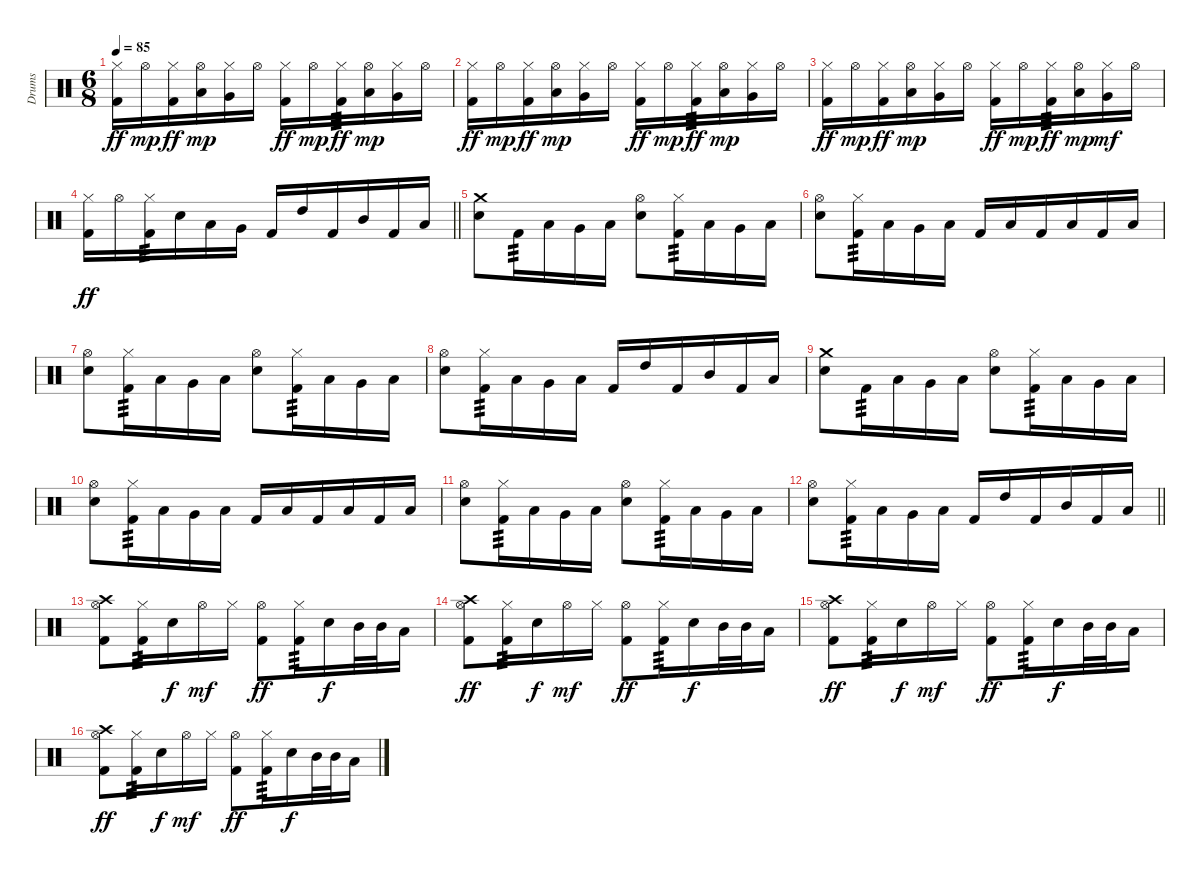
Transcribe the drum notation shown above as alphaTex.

\track ("Drums" "Drums") {instrument percussion}
\staff {score}
\articulation defaults
\ts (6 8)
\tempo 85
\clef neutral
\ks c
("Hi-Hat (closed)" "Kick (hit) 2").16{dy ff} "Hi-Hat (open)".16{dy mp} ("Hi-Hat (closed)" "Kick (hit) 2").16{dy ff} ("Hi-Hat (open)" "Low Tom (hit)").16{dy mp} ("Hi-Hat (closed)" "Very Low Tom (hit)").16 "Hi-Hat (open)".16 ("Hi-Hat (closed)" "Kick (hit) 2").16{dy ff} "Hi-Hat (open)".16{dy mp} ("Hi-Hat (closed)" "Kick (hit) 2").16{tp 3 dy ff} ("Hi-Hat (open)" "Low Tom (hit)").16{dy mp} ("Hi-Hat (closed)" "Very Low Tom (hit)").16 "Hi-Hat (open)".16 |
("Hi-Hat (closed)" "Kick (hit) 2").16{dy ff} "Hi-Hat (open)".16{dy mp} ("Hi-Hat (closed)" "Kick (hit) 2").16{dy ff} ("Hi-Hat (open)" "Low Tom (hit)").16{dy mp} ("Hi-Hat (closed)" "Very Low Tom (hit)").16 "Hi-Hat (open)".16 ("Hi-Hat (closed)" "Kick (hit) 2").16{dy ff} "Hi-Hat (open)".16{dy mp} ("Hi-Hat (closed)" "Kick (hit) 2").16{tp 3 dy ff} ("Hi-Hat (open)" "Low Tom (hit)").16{dy mp} ("Hi-Hat (closed)" "Very Low Tom (hit)").16 "Hi-Hat (open)".16 |
("Hi-Hat (closed)" "Kick (hit) 2").16{dy ff} "Hi-Hat (open)".16{dy mp} ("Hi-Hat (closed)" "Kick (hit) 2").16{dy ff} ("Hi-Hat (open)" "Low Tom (hit)").16{dy mp} ("Hi-Hat (closed)" "Very Low Tom (hit)").16 "Hi-Hat (open)".16 ("Hi-Hat (closed)" "Kick (hit) 2").16{dy ff} "Hi-Hat (open)".16{dy mp} ("Hi-Hat (closed)" "Kick (hit) 2").16{tp 3 dy ff} ("Hi-Hat (open)" "Low Tom (hit)").16{dy mp} ("Hi-Hat (closed)" "Very Low Tom (hit)").16{dy mf} "Hi-Hat (open)".16 |
\barLineRight lightlight
("Hi-Hat (closed)" "Kick (hit) 2").16{dy ff} "Hi-Hat (open)".16 ("Hi-Hat (closed)" "Kick (hit) 2").16{tp 3} "Snare (hit) 2".16 "Low Tom (hit)".16 "Very Low Tom (hit)".16 "Kick (hit) 2".16 "High Tom (hit)".16 "Kick (hit) 2".16 "Mid Tom (hit)".16 "Kick (hit) 2".16 "Low Tom (hit)".16 |
\section ("" "")
("Crash medium (hit)" "Snare (hit) 2").8 "Kick (hit) 2".16{tp 3} "Low Tom (hit)".16 "Very Low Tom (hit)".16 "Low Floor Tom (hit)".16 ("Hi-Hat (open)" "Snare (hit) 2").8 ("Hi-Hat (closed)" "Kick (hit) 2").16{tp 3} "Low Tom (hit)".16 "Very Low Tom (hit)".16 "Low Floor Tom (hit)".16 |
("Hi-Hat (open)" "Snare (hit) 2").8 ("Hi-Hat (closed)" "Kick (hit) 2").16{tp 3} "Low Tom (hit)".16 "Very Low Tom (hit)".16 "Low Floor Tom (hit)".16 "Kick (hit) 2".16 "Low Tom (hit)".16 "Kick (hit) 2".16 "Low Tom (hit)".16 "Kick (hit) 2".16 "Low Tom (hit)".16 |
("Hi-Hat (open)" "Snare (hit) 2").8 ("Hi-Hat (closed)" "Kick (hit) 2").16{tp 3} "Low Tom (hit)".16 "Very Low Tom (hit)".16 "Low Floor Tom (hit)".16 ("Hi-Hat (open)" "Snare (hit) 2").8 ("Hi-Hat (closed)" "Kick (hit) 2").16{tp 3} "Low Tom (hit)".16 "Very Low Tom (hit)".16 "Low Floor Tom (hit)".16 |
("Hi-Hat (open)" "Snare (hit) 2").8 ("Hi-Hat (closed)" "Kick (hit) 2").16{tp 3} "Low Tom (hit)".16 "Very Low Tom (hit)".16 "Low Floor Tom (hit)".16 "Kick (hit) 2".16 "High Tom (hit)".16 "Kick (hit) 2".16 "Mid Tom (hit)".16 "Kick (hit) 2".16 "Low Tom (hit)".16 |
("Crash medium (hit)" "Snare (hit) 2").8 "Kick (hit) 2".16{tp 3} "Low Tom (hit)".16 "Very Low Tom (hit)".16 "Low Floor Tom (hit)".16 ("Hi-Hat (open)" "Snare (hit) 2").8 ("Hi-Hat (closed)" "Kick (hit) 2").16{tp 3} "Low Tom (hit)".16 "Very Low Tom (hit)".16 "Low Floor Tom (hit)".16 |
("Hi-Hat (open)" "Snare (hit) 2").8 ("Hi-Hat (closed)" "Kick (hit) 2").16{tp 3} "Low Tom (hit)".16 "Very Low Tom (hit)".16 "Low Floor Tom (hit)".16 "Kick (hit) 2".16 "Low Tom (hit)".16 "Kick (hit) 2".16 "Low Tom (hit)".16 "Kick (hit) 2".16 "Low Tom (hit)".16 |
("Hi-Hat (open)" "Snare (hit) 2").8 ("Hi-Hat (closed)" "Kick (hit) 2").16{tp 3} "Low Tom (hit)".16 "Very Low Tom (hit)".16 "Low Floor Tom (hit)".16 ("Hi-Hat (open)" "Snare (hit) 2").8 ("Hi-Hat (closed)" "Kick (hit) 2").16{tp 3} "Low Tom (hit)".16 "Very Low Tom (hit)".16 "Low Floor Tom (hit)".16 |
\barLineRight lightlight
("Hi-Hat (open)" "Snare (hit) 2").8 ("Hi-Hat (closed)" "Kick (hit) 2").16{tp 3} "Low Tom (hit)".16 "Very Low Tom (hit)".16 "Low Floor Tom (hit)".16 "Kick (hit) 2".16 "High Tom (hit)".16 "Kick (hit) 2".16 "Mid Tom (hit)".16 "Kick (hit) 2".16 "Low Tom (hit)".16 |
\section ("" "")
("Crash high (hit)" "Hi-Hat (open)" "Kick (hit) 2").8 ("Hi-Hat (closed)" "Kick (hit) 2").16{tp 3} "Snare (hit) 2".16{dy f} "Hi-Hat (open)".16{dy mf} "Hi-Hat (closed)".16 ("Hi-Hat (open)" "Kick (hit) 2").8{dy ff} ("Hi-Hat (closed)" "Kick (hit) 2").16{tp 3} "Snare (hit) 2".16{dy f} "Mid Tom (hit)".32 "Mid Tom (hit)".32 "Low Tom (hit)".16 |
("Crash high (hit)" "Hi-Hat (open)" "Kick (hit) 2").8{dy ff} ("Hi-Hat (closed)" "Kick (hit) 2").16{tp 3} "Snare (hit) 2".16{dy f} "Hi-Hat (open)".16{dy mf} "Hi-Hat (closed)".16 ("Hi-Hat (open)" "Kick (hit) 2").8{dy ff} ("Hi-Hat (closed)" "Kick (hit) 2").16{tp 3} "Snare (hit) 2".16{dy f} "Mid Tom (hit)".32 "Mid Tom (hit)".32 "Low Tom (hit)".16 |
("Crash high (hit)" "Hi-Hat (open)" "Kick (hit) 2").8{dy ff} ("Hi-Hat (closed)" "Kick (hit) 2").16{tp 3} "Snare (hit) 2".16{dy f} "Hi-Hat (open)".16{dy mf} "Hi-Hat (closed)".16 ("Hi-Hat (open)" "Kick (hit) 2").8{dy ff} ("Hi-Hat (closed)" "Kick (hit) 2").16{tp 3} "Snare (hit) 2".16{dy f} "Mid Tom (hit)".32 "Mid Tom (hit)".32 "Low Tom (hit)".16 |
("Crash high (hit)" "Hi-Hat (open)" "Kick (hit) 2").8{dy ff} ("Hi-Hat (closed)" "Kick (hit) 2").16{tp 3} "Snare (hit) 2".16{dy f} "Hi-Hat (open)".16{dy mf} "Hi-Hat (closed)".16 ("Hi-Hat (open)" "Kick (hit) 2").8{dy ff} ("Hi-Hat (closed)" "Kick (hit) 2").16{tp 3} "Snare (hit) 2".16{dy f} "Mid Tom (hit)".32 "Mid Tom (hit)".32 "Low Tom (hit)".16
